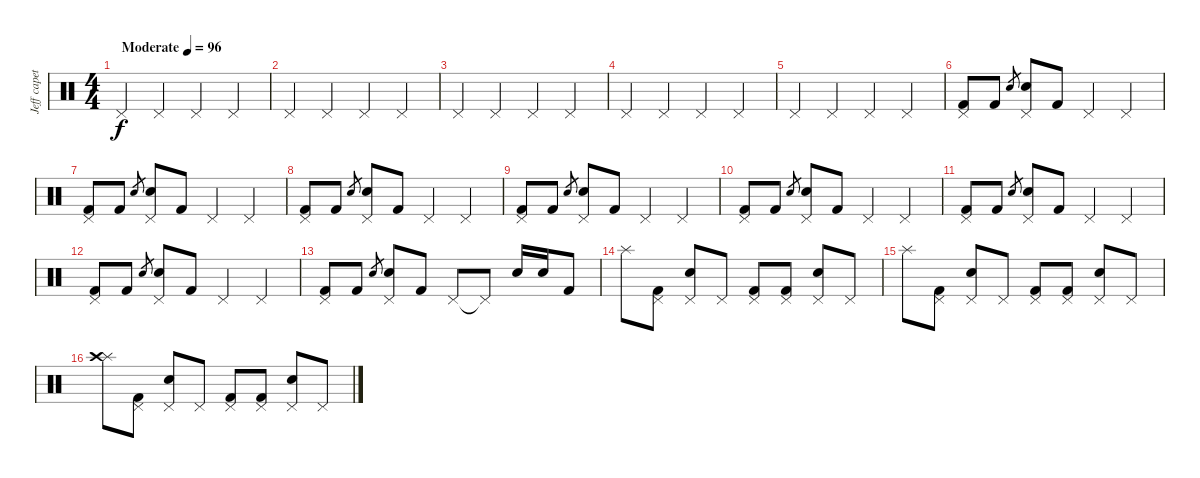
\track ("Jeff capetally" "Jeff capet") {instrument percussion}
\staff {score}
\articulation defaults
\ts (4 4)
\tempo (96 "Moderate")
\clef neutral
\ks c "Pedal Hi-Hat (hit)".4{dy f} "Pedal Hi-Hat (hit)".4 "Pedal Hi-Hat (hit)".4 "Pedal Hi-Hat (hit)".4
|
"Pedal Hi-Hat (hit)".4 "Pedal Hi-Hat (hit)".4 "Pedal Hi-Hat (hit)".4 "Pedal Hi-Hat (hit)".4 |
"Pedal Hi-Hat (hit)".4 "Pedal Hi-Hat (hit)".4 "Pedal Hi-Hat (hit)".4 "Pedal Hi-Hat (hit)".4 |
"Pedal Hi-Hat (hit)".4 "Pedal Hi-Hat (hit)".4 "Pedal Hi-Hat (hit)".4 "Pedal Hi-Hat (hit)".4 |
"Pedal Hi-Hat (hit)".4 "Pedal Hi-Hat (hit)".4 "Pedal Hi-Hat (hit)".4 "Pedal Hi-Hat (hit)".4 |
("Pedal Hi-Hat (hit)" "Kick (hit) 2").8 "Kick (hit) 2".8 "Snare (hit) 2".8{gr} ("Pedal Hi-Hat (hit)" "Snare (hit) 2").8 "Kick (hit) 2".8 "Pedal Hi-Hat (hit)".4 "Pedal Hi-Hat (hit)".4 |
("Pedal Hi-Hat (hit)" "Kick (hit) 2").8 "Kick (hit) 2".8 "Snare (hit) 2".8{gr} ("Pedal Hi-Hat (hit)" "Snare (hit) 2").8 "Kick (hit) 2".8 "Pedal Hi-Hat (hit)".4 "Pedal Hi-Hat (hit)".4 |
("Pedal Hi-Hat (hit)" "Kick (hit) 2").8 "Kick (hit) 2".8 "Snare (hit) 2".8{gr} ("Pedal Hi-Hat (hit)" "Snare (hit) 2").8 "Kick (hit) 2".8 "Pedal Hi-Hat (hit)".4 "Pedal Hi-Hat (hit)".4 |
("Pedal Hi-Hat (hit)" "Kick (hit) 2").8 "Kick (hit) 2".8 "Snare (hit) 2".8{gr} ("Pedal Hi-Hat (hit)" "Snare (hit) 2").8 "Kick (hit) 2".8 "Pedal Hi-Hat (hit)".4 "Pedal Hi-Hat (hit)".4 |
("Pedal Hi-Hat (hit)" "Kick (hit) 2").8 "Kick (hit) 2".8 "Snare (hit) 2".8{gr} ("Pedal Hi-Hat (hit)" "Snare (hit) 2").8 "Kick (hit) 2".8 "Pedal Hi-Hat (hit)".4 "Pedal Hi-Hat (hit)".4 |
("Pedal Hi-Hat (hit)" "Kick (hit) 2").8 "Kick (hit) 2".8 "Snare (hit) 2".8{gr} ("Pedal Hi-Hat (hit)" "Snare (hit) 2").8 "Kick (hit) 2".8 "Pedal Hi-Hat (hit)".4 "Pedal Hi-Hat (hit)".4 |
("Pedal Hi-Hat (hit)" "Kick (hit) 2").8 "Kick (hit) 2".8 "Snare (hit) 2".8{gr} ("Pedal Hi-Hat (hit)" "Snare (hit) 2").8 "Kick (hit) 2".8 "Pedal Hi-Hat (hit)".4 "Pedal Hi-Hat (hit)".4 |
("Pedal Hi-Hat (hit)" "Kick (hit) 2").8 "Kick (hit) 2".8 "Snare (hit) 2".8{gr} ("Pedal Hi-Hat (hit)" "Snare (hit) 2").8 "Kick (hit) 2".8 "Pedal Hi-Hat (hit)".8 "Pedal Hi-Hat (hit)"{t}.8 "Snare (hit) 2".16 "Snare (hit) 2".16 "Kick (hit) 2".8 |
"Splash (hit)".8 ("Pedal Hi-Hat (hit)" "Kick (hit) 2").8 ("Pedal Hi-Hat (hit)" "Snare (hit) 2").8 "Pedal Hi-Hat (hit)".8 ("Pedal Hi-Hat (hit)" "Kick (hit) 2").8 ("Pedal Hi-Hat (hit)" "Kick (hit) 2").8 ("Pedal Hi-Hat (hit)" "Snare (hit) 2").8 "Pedal Hi-Hat (hit)".8 |
"Splash (hit)".8 ("Pedal Hi-Hat (hit)" "Kick (hit) 2").8 ("Pedal Hi-Hat (hit)" "Snare (hit) 2").8 "Pedal Hi-Hat (hit)".8 ("Pedal Hi-Hat (hit)" "Kick (hit) 2").8 ("Pedal Hi-Hat (hit)" "Kick (hit) 2").8 ("Pedal Hi-Hat (hit)" "Snare (hit) 2").8 "Pedal Hi-Hat (hit)".8 |
("Splash (hit)" "Crash high (hit)").8 ("Pedal Hi-Hat (hit)" "Kick (hit) 2").8 ("Pedal Hi-Hat (hit)" "Snare (hit) 2").8 "Pedal Hi-Hat (hit)".8 ("Pedal Hi-Hat (hit)" "Kick (hit) 2").8 ("Pedal Hi-Hat (hit)" "Kick (hit) 2").8 ("Pedal Hi-Hat (hit)" "Snare (hit) 2").8 "Pedal Hi-Hat (hit)".8
